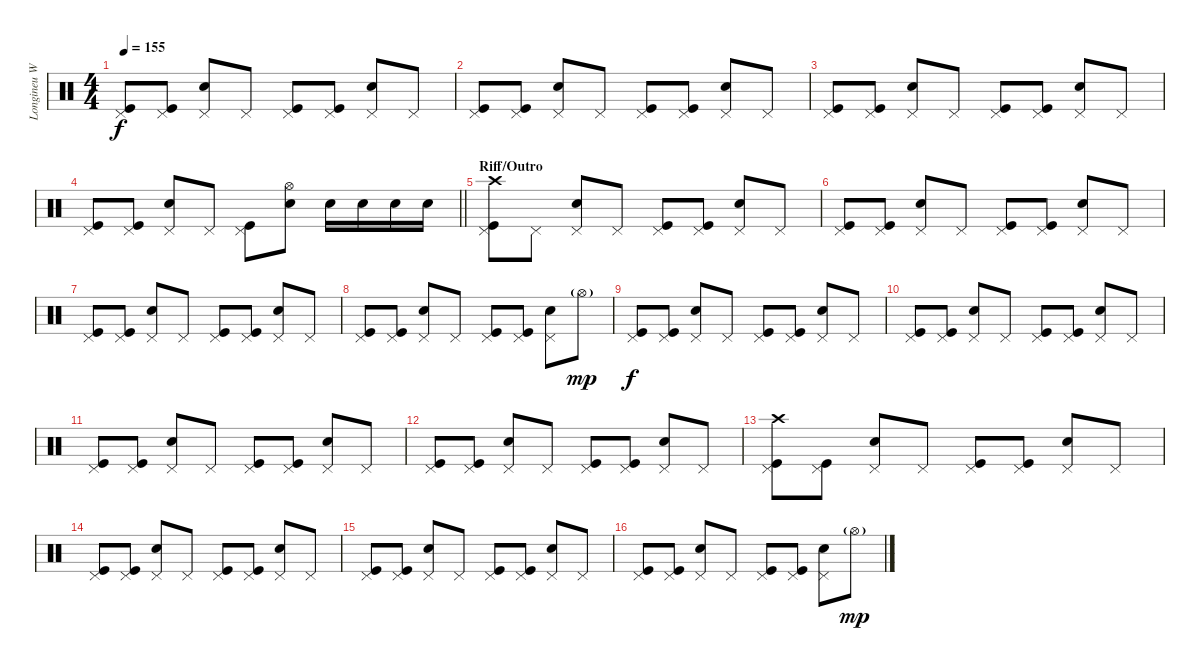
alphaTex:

\track ("Longineu W. Parsons III - Drums" "Longineu W") {instrument percussion}
\staff {score}
\articulation defaults
\ts (4 4)
\tempo 155
\clef neutral
\ks c
("Pedal Hi-Hat (hit)" "Kick (hit)").8{dy f} ("Pedal Hi-Hat (hit)" "Kick (hit)").8 ("Pedal Hi-Hat (hit)" "Snare (hit) 2").8 "Pedal Hi-Hat (hit)".8 ("Pedal Hi-Hat (hit)" "Kick (hit)").8 ("Pedal Hi-Hat (hit)" "Kick (hit)").8 ("Pedal Hi-Hat (hit)" "Snare (hit) 2").8 "Pedal Hi-Hat (hit)".8 |
("Pedal Hi-Hat (hit)" "Kick (hit)").8 ("Pedal Hi-Hat (hit)" "Kick (hit)").8 ("Pedal Hi-Hat (hit)" "Snare (hit) 2").8 "Pedal Hi-Hat (hit)".8 ("Pedal Hi-Hat (hit)" "Kick (hit)").8 ("Pedal Hi-Hat (hit)" "Kick (hit)").8 ("Pedal Hi-Hat (hit)" "Snare (hit) 2").8 "Pedal Hi-Hat (hit)".8 |
("Pedal Hi-Hat (hit)" "Kick (hit)").8 ("Pedal Hi-Hat (hit)" "Kick (hit)").8 ("Pedal Hi-Hat (hit)" "Snare (hit) 2").8 "Pedal Hi-Hat (hit)".8 ("Pedal Hi-Hat (hit)" "Kick (hit)").8 ("Pedal Hi-Hat (hit)" "Kick (hit)").8 ("Pedal Hi-Hat (hit)" "Snare (hit) 2").8 "Pedal Hi-Hat (hit)".8 |
\barLineRight lightlight
("Pedal Hi-Hat (hit)" "Kick (hit)").8 ("Pedal Hi-Hat (hit)" "Kick (hit)").8 ("Pedal Hi-Hat (hit)" "Snare (hit) 2").8 "Pedal Hi-Hat (hit)".8 ("Pedal Hi-Hat (hit)" "Kick (hit)").8 ("Hi-Hat (open)" "Snare (hit) 2").8 "Snare (hit) 2".16 "Snare (hit) 2".16 "Snare (hit) 2".16 "Snare (hit) 2".16 |
\section ("" "Riff/Outro")
("Crash high (hit)" "Pedal Hi-Hat (hit)" "Kick (hit)").8 "Pedal Hi-Hat (hit)".8 ("Pedal Hi-Hat (hit)" "Snare (hit) 2").8 "Pedal Hi-Hat (hit)".8 ("Pedal Hi-Hat (hit)" "Kick (hit)").8 ("Pedal Hi-Hat (hit)" "Kick (hit)").8 ("Pedal Hi-Hat (hit)" "Snare (hit) 2").8 "Pedal Hi-Hat (hit)".8 |
("Pedal Hi-Hat (hit)" "Kick (hit)").8 ("Pedal Hi-Hat (hit)" "Kick (hit)").8 ("Pedal Hi-Hat (hit)" "Snare (hit) 2").8 "Pedal Hi-Hat (hit)".8 ("Pedal Hi-Hat (hit)" "Kick (hit)").8 ("Pedal Hi-Hat (hit)" "Kick (hit)").8 ("Pedal Hi-Hat (hit)" "Snare (hit) 2").8 "Pedal Hi-Hat (hit)".8 |
("Pedal Hi-Hat (hit)" "Kick (hit)").8 ("Pedal Hi-Hat (hit)" "Kick (hit)").8 ("Pedal Hi-Hat (hit)" "Snare (hit) 2").8 "Pedal Hi-Hat (hit)".8 ("Pedal Hi-Hat (hit)" "Kick (hit)").8 ("Pedal Hi-Hat (hit)" "Kick (hit)").8 ("Pedal Hi-Hat (hit)" "Snare (hit) 2").8 "Pedal Hi-Hat (hit)".8 |
("Pedal Hi-Hat (hit)" "Kick (hit)").8 ("Pedal Hi-Hat (hit)" "Kick (hit)").8 ("Pedal Hi-Hat (hit)" "Snare (hit) 2").8 "Pedal Hi-Hat (hit)".8 ("Pedal Hi-Hat (hit)" "Kick (hit)").8 ("Pedal Hi-Hat (hit)" "Kick (hit)").8 ("Pedal Hi-Hat (hit)" "Snare (hit) 2").8 "Hi-Hat (open)"{g}.8{dy mp} |
("Pedal Hi-Hat (hit)" "Kick (hit)").8{dy f} ("Pedal Hi-Hat (hit)" "Kick (hit)").8 ("Pedal Hi-Hat (hit)" "Snare (hit) 2").8 "Pedal Hi-Hat (hit)".8 ("Pedal Hi-Hat (hit)" "Kick (hit)").8 ("Pedal Hi-Hat (hit)" "Kick (hit)").8 ("Pedal Hi-Hat (hit)" "Snare (hit) 2").8 "Pedal Hi-Hat (hit)".8 |
("Pedal Hi-Hat (hit)" "Kick (hit)").8 ("Pedal Hi-Hat (hit)" "Kick (hit)").8 ("Pedal Hi-Hat (hit)" "Snare (hit) 2").8 "Pedal Hi-Hat (hit)".8 ("Pedal Hi-Hat (hit)" "Kick (hit)").8 ("Pedal Hi-Hat (hit)" "Kick (hit)").8 ("Pedal Hi-Hat (hit)" "Snare (hit) 2").8 "Pedal Hi-Hat (hit)".8 |
("Pedal Hi-Hat (hit)" "Kick (hit)").8 ("Pedal Hi-Hat (hit)" "Kick (hit)").8 ("Pedal Hi-Hat (hit)" "Snare (hit) 2").8 "Pedal Hi-Hat (hit)".8 ("Pedal Hi-Hat (hit)" "Kick (hit)").8 ("Pedal Hi-Hat (hit)" "Kick (hit)").8 ("Pedal Hi-Hat (hit)" "Snare (hit) 2").8 "Pedal Hi-Hat (hit)".8 |
("Pedal Hi-Hat (hit)" "Kick (hit)").8 ("Pedal Hi-Hat (hit)" "Kick (hit)").8 ("Pedal Hi-Hat (hit)" "Snare (hit) 2").8 "Pedal Hi-Hat (hit)".8 ("Pedal Hi-Hat (hit)" "Kick (hit)").8 ("Pedal Hi-Hat (hit)" "Kick (hit)").8 ("Pedal Hi-Hat (hit)" "Snare (hit) 2").8 "Pedal Hi-Hat (hit)".8 |
("Crash high (hit)" "Pedal Hi-Hat (hit)" "Kick (hit)").8 ("Pedal Hi-Hat (hit)" "Kick (hit)").8 ("Pedal Hi-Hat (hit)" "Snare (hit) 2").8 "Pedal Hi-Hat (hit)".8 ("Pedal Hi-Hat (hit)" "Kick (hit)").8 ("Pedal Hi-Hat (hit)" "Kick (hit)").8 ("Pedal Hi-Hat (hit)" "Snare (hit) 2").8 "Pedal Hi-Hat (hit)".8 |
("Pedal Hi-Hat (hit)" "Kick (hit)").8 ("Pedal Hi-Hat (hit)" "Kick (hit)").8 ("Pedal Hi-Hat (hit)" "Snare (hit) 2").8 "Pedal Hi-Hat (hit)".8 ("Pedal Hi-Hat (hit)" "Kick (hit)").8 ("Pedal Hi-Hat (hit)" "Kick (hit)").8 ("Pedal Hi-Hat (hit)" "Snare (hit) 2").8 "Pedal Hi-Hat (hit)".8 |
("Pedal Hi-Hat (hit)" "Kick (hit)").8 ("Pedal Hi-Hat (hit)" "Kick (hit)").8 ("Pedal Hi-Hat (hit)" "Snare (hit) 2").8 "Pedal Hi-Hat (hit)".8 ("Pedal Hi-Hat (hit)" "Kick (hit)").8 ("Pedal Hi-Hat (hit)" "Kick (hit)").8 ("Pedal Hi-Hat (hit)" "Snare (hit) 2").8 "Pedal Hi-Hat (hit)".8 |
("Pedal Hi-Hat (hit)" "Kick (hit)").8 ("Pedal Hi-Hat (hit)" "Kick (hit)").8 ("Pedal Hi-Hat (hit)" "Snare (hit) 2").8 "Pedal Hi-Hat (hit)".8 ("Pedal Hi-Hat (hit)" "Kick (hit)").8 ("Pedal Hi-Hat (hit)" "Kick (hit)").8 ("Pedal Hi-Hat (hit)" "Snare (hit) 2").8 "Hi-Hat (open)"{g}.8{dy mp}
